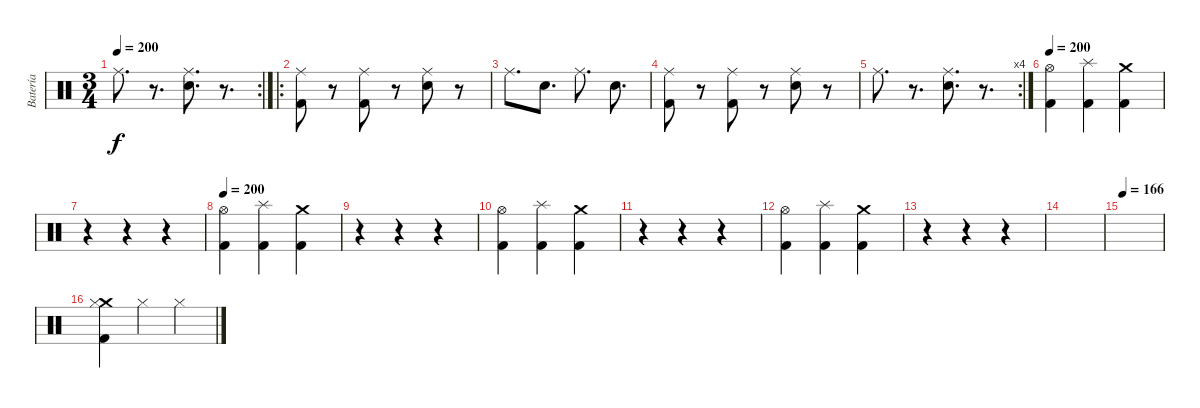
\track ("Batería" "Batería") {instrument percussion}
\staff {score}
\articulation defaults
\rc 2
\ts (3 4)
\tempo 200
\clef neutral
\ks c "Ride (middle)".8{d dy f}
r.8{d} ("Snare (hit) 2" "Ride (middle)").8{d} r.8{d} |
\ro
("Kick (hit) 2" "Ride (middle)").8 r.8 ("Kick (hit) 2" "Ride (middle)").8 r.8 ("Snare (hit) 2" "Ride (middle)").8 r.8 |
"Ride (middle)".8{d} "Snare (hit) 2".8{d} "Ride (middle)".8{d} "Snare (hit) 2".8{d} |
("Kick (hit) 2" "Ride (middle)").8 r.8 ("Kick (hit) 2" "Ride (middle)").8 r.8 ("Snare (hit) 2" "Ride (middle)").8 r.8 |
\rc 4 "Ride (middle)".8{d}
r.8{d} ("Snare (hit) 2" "Ride (middle)").8{d} r.8{d} |
\tempo 200
("Kick (hit) 2" "Hi-Hat (open)").4 ("Kick (hit) 2" "Splash (hit)").4 ("Kick (hit) 2" "Crash medium (hit)").4 |
r.4 r.4 r.4 |
\tempo 200
("Kick (hit) 2" "Hi-Hat (open)").4 ("Kick (hit) 2" "Splash (hit)").4 ("Kick (hit) 2" "Crash medium (hit)").4 |
r.4 r.4 r.4 |
("Kick (hit) 2" "Hi-Hat (open)").4 ("Kick (hit) 2" "Splash (hit)").4 ("Kick (hit) 2" "Crash medium (hit)").4 |
r.4 r.4 r.4 |
("Kick (hit) 2" "Hi-Hat (open)").4 ("Kick (hit) 2" "Splash (hit)").4 ("Kick (hit) 2" "Crash medium (hit)").4 |
r.4 r.4 r.4 |
|
\tempo 166
|
("Kick (hit) 2" "Crash medium (hit)" "Hi-Hat (closed)").4 "Hi-Hat (closed)".4 "Hi-Hat (closed)".4
